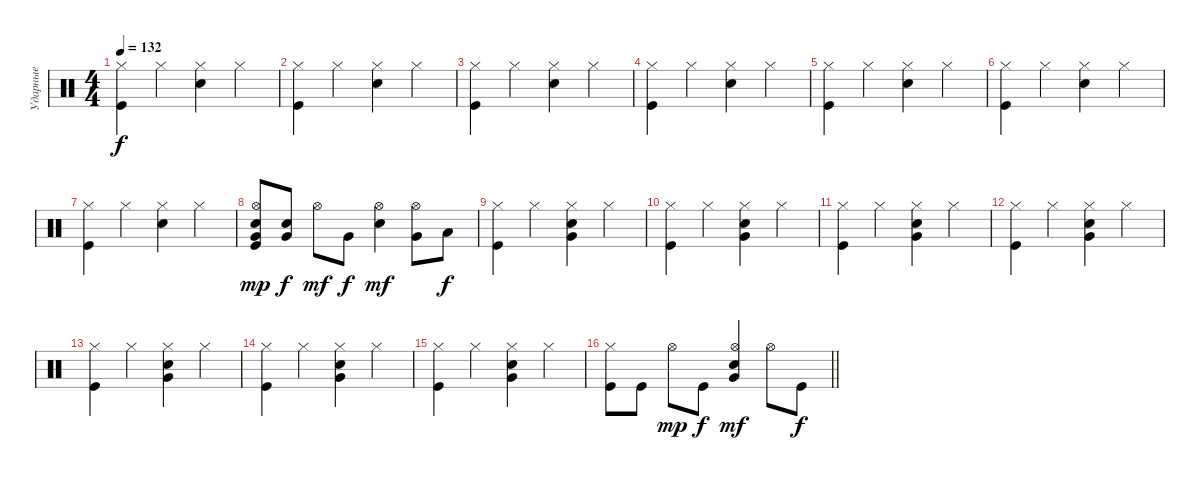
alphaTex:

\track ("Ударные" "Ударные") {instrument percussion}
\staff {score}
\articulation defaults
\ts (4 4)
\tempo 132
\clef neutral
\ks c
("Hi-Hat (closed)" "Kick (hit)").4{dy f} "Hi-Hat (closed)".4 ("Hi-Hat (closed)" "Snare (hit) 2").4 "Hi-Hat (closed)".4 |
("Hi-Hat (closed)" "Kick (hit)").4 "Hi-Hat (closed)".4 ("Hi-Hat (closed)" "Snare (hit) 2").4 "Hi-Hat (closed)".4 |
("Hi-Hat (closed)" "Kick (hit)").4 "Hi-Hat (closed)".4 ("Hi-Hat (closed)" "Snare (hit) 2").4 "Hi-Hat (closed)".4 |
("Hi-Hat (closed)" "Kick (hit)").4 "Hi-Hat (closed)".4 ("Hi-Hat (closed)" "Snare (hit) 2").4 "Hi-Hat (closed)".4 |
("Hi-Hat (closed)" "Kick (hit)").4 "Hi-Hat (closed)".4 ("Hi-Hat (closed)" "Snare (hit) 2").4 "Hi-Hat (closed)".4 |
("Hi-Hat (closed)" "Kick (hit)").4 "Hi-Hat (closed)".4 ("Hi-Hat (closed)" "Snare (hit) 2").4 "Hi-Hat (closed)".4 |
("Hi-Hat (closed)" "Kick (hit)").4 "Hi-Hat (closed)".4 ("Hi-Hat (closed)" "Snare (hit) 2").4 "Hi-Hat (closed)".4 |
("Hi-Hat (open)" "Kick (hit)" "Very Low Tom (hit)" "Snare (hit) 2").8{dy mp} ("Very Low Tom (hit)" "Snare (hit) 2").8{dy f} "Hi-Hat (open)".8{dy mf} "Very Low Tom (hit)".8{dy f} ("Hi-Hat (open)" "Snare (hit) 2").4{dy mf} ("Hi-Hat (open)" "Very Low Tom (hit)").8 "Low Floor Tom (hit)".8{dy f} |
("Hi-Hat (closed)" "Kick (hit)").4 "Hi-Hat (closed)".4 ("Hi-Hat (closed)" "Snare (hit) 2" "Very Low Tom (hit)").4 "Hi-Hat (closed)".4 |
("Hi-Hat (closed)" "Kick (hit)").4 "Hi-Hat (closed)".4 ("Hi-Hat (closed)" "Snare (hit) 2" "Very Low Tom (hit)").4 "Hi-Hat (closed)".4 |
("Hi-Hat (closed)" "Kick (hit)").4 "Hi-Hat (closed)".4 ("Hi-Hat (closed)" "Snare (hit) 2" "Very Low Tom (hit)").4 "Hi-Hat (closed)".4 |
("Hi-Hat (closed)" "Kick (hit)").4 "Hi-Hat (closed)".4 ("Hi-Hat (closed)" "Snare (hit) 2" "Very Low Tom (hit)").4 "Hi-Hat (closed)".4 |
("Hi-Hat (closed)" "Kick (hit)").4 "Hi-Hat (closed)".4 ("Hi-Hat (closed)" "Snare (hit) 2" "Very Low Tom (hit)").4 "Hi-Hat (closed)".4 |
("Hi-Hat (closed)" "Kick (hit)").4 "Hi-Hat (closed)".4 ("Hi-Hat (closed)" "Snare (hit) 2" "Very Low Tom (hit)").4 "Hi-Hat (closed)".4 |
("Hi-Hat (closed)" "Kick (hit)").4 "Hi-Hat (closed)".4 ("Hi-Hat (closed)" "Snare (hit) 2" "Very Low Tom (hit)").4 "Hi-Hat (closed)".4 |
\barLineRight lightlight
("Hi-Hat (closed)" "Kick (hit)").8 "Kick (hit)".8 "Hi-Hat (open)".8{dy mp} "Kick (hit)".8{dy f} ("Hi-Hat (open)" "Snare (hit) 2" "Very Low Tom (hit)").4{dy mf} "Hi-Hat (open)".8 "Kick (hit)".8{dy f}
